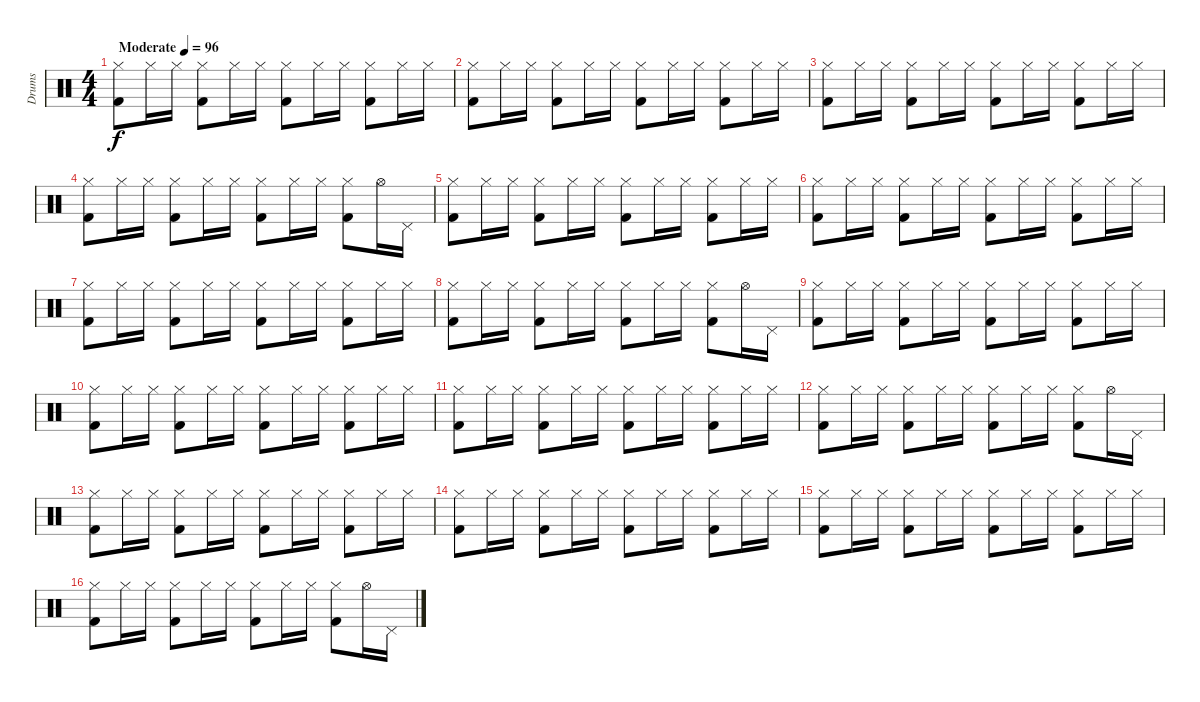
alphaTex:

\track ("Drums" "Drums") {instrument percussion}
\staff {score}
\articulation defaults
\ts (4 4)
\tempo (96 "Moderate")
\clef neutral
\ks c
("Hi-Hat (closed)" "Kick (hit) 2").8{dy f} "Hi-Hat (closed)".16 "Hi-Hat (closed)".16 ("Hi-Hat (closed)" "Kick (hit) 2").8 "Hi-Hat (closed)".16 "Hi-Hat (closed)".16 ("Hi-Hat (closed)" "Kick (hit) 2").8 "Hi-Hat (closed)".16 "Hi-Hat (closed)".16 ("Hi-Hat (closed)" "Kick (hit) 2").8 "Hi-Hat (closed)".16 "Hi-Hat (closed)".16 |
("Hi-Hat (closed)" "Kick (hit) 2").8 "Hi-Hat (closed)".16 "Hi-Hat (closed)".16 ("Hi-Hat (closed)" "Kick (hit) 2").8 "Hi-Hat (closed)".16 "Hi-Hat (closed)".16 ("Hi-Hat (closed)" "Kick (hit) 2").8 "Hi-Hat (closed)".16 "Hi-Hat (closed)".16 ("Hi-Hat (closed)" "Kick (hit) 2").8 "Hi-Hat (closed)".16 "Hi-Hat (closed)".16 |
("Hi-Hat (closed)" "Kick (hit) 2").8 "Hi-Hat (closed)".16 "Hi-Hat (closed)".16 ("Hi-Hat (closed)" "Kick (hit) 2").8 "Hi-Hat (closed)".16 "Hi-Hat (closed)".16 ("Hi-Hat (closed)" "Kick (hit) 2").8 "Hi-Hat (closed)".16 "Hi-Hat (closed)".16 ("Hi-Hat (closed)" "Kick (hit) 2").8 "Hi-Hat (closed)".16 "Hi-Hat (closed)".16 |
("Hi-Hat (closed)" "Kick (hit) 2").8 "Hi-Hat (closed)".16 "Hi-Hat (closed)".16 ("Hi-Hat (closed)" "Kick (hit) 2").8 "Hi-Hat (closed)".16 "Hi-Hat (closed)".16 ("Hi-Hat (closed)" "Kick (hit) 2").8 "Hi-Hat (closed)".16 "Hi-Hat (closed)".16 ("Hi-Hat (closed)" "Kick (hit) 2").8 "Hi-Hat (open)".16 "Pedal Hi-Hat (hit)".16 |
("Hi-Hat (closed)" "Kick (hit) 2").8 "Hi-Hat (closed)".16 "Hi-Hat (closed)".16 ("Hi-Hat (closed)" "Kick (hit) 2").8 "Hi-Hat (closed)".16 "Hi-Hat (closed)".16 ("Hi-Hat (closed)" "Kick (hit) 2").8 "Hi-Hat (closed)".16 "Hi-Hat (closed)".16 ("Hi-Hat (closed)" "Kick (hit) 2").8 "Hi-Hat (closed)".16 "Hi-Hat (closed)".16 |
("Hi-Hat (closed)" "Kick (hit) 2").8 "Hi-Hat (closed)".16 "Hi-Hat (closed)".16 ("Hi-Hat (closed)" "Kick (hit) 2").8 "Hi-Hat (closed)".16 "Hi-Hat (closed)".16 ("Hi-Hat (closed)" "Kick (hit) 2").8 "Hi-Hat (closed)".16 "Hi-Hat (closed)".16 ("Hi-Hat (closed)" "Kick (hit) 2").8 "Hi-Hat (closed)".16 "Hi-Hat (closed)".16 |
("Hi-Hat (closed)" "Kick (hit) 2").8 "Hi-Hat (closed)".16 "Hi-Hat (closed)".16 ("Hi-Hat (closed)" "Kick (hit) 2").8 "Hi-Hat (closed)".16 "Hi-Hat (closed)".16 ("Hi-Hat (closed)" "Kick (hit) 2").8 "Hi-Hat (closed)".16 "Hi-Hat (closed)".16 ("Hi-Hat (closed)" "Kick (hit) 2").8 "Hi-Hat (closed)".16 "Hi-Hat (closed)".16 |
("Hi-Hat (closed)" "Kick (hit) 2").8 "Hi-Hat (closed)".16 "Hi-Hat (closed)".16 ("Hi-Hat (closed)" "Kick (hit) 2").8 "Hi-Hat (closed)".16 "Hi-Hat (closed)".16 ("Hi-Hat (closed)" "Kick (hit) 2").8 "Hi-Hat (closed)".16 "Hi-Hat (closed)".16 ("Hi-Hat (closed)" "Kick (hit) 2").8 "Hi-Hat (open)".16 "Pedal Hi-Hat (hit)".16 |
("Hi-Hat (closed)" "Kick (hit) 2").8 "Hi-Hat (closed)".16 "Hi-Hat (closed)".16 ("Hi-Hat (closed)" "Kick (hit) 2").8 "Hi-Hat (closed)".16 "Hi-Hat (closed)".16 ("Hi-Hat (closed)" "Kick (hit) 2").8 "Hi-Hat (closed)".16 "Hi-Hat (closed)".16 ("Hi-Hat (closed)" "Kick (hit) 2").8 "Hi-Hat (closed)".16 "Hi-Hat (closed)".16 |
("Hi-Hat (closed)" "Kick (hit) 2").8 "Hi-Hat (closed)".16 "Hi-Hat (closed)".16 ("Hi-Hat (closed)" "Kick (hit) 2").8 "Hi-Hat (closed)".16 "Hi-Hat (closed)".16 ("Hi-Hat (closed)" "Kick (hit) 2").8 "Hi-Hat (closed)".16 "Hi-Hat (closed)".16 ("Hi-Hat (closed)" "Kick (hit) 2").8 "Hi-Hat (closed)".16 "Hi-Hat (closed)".16 |
("Hi-Hat (closed)" "Kick (hit) 2").8 "Hi-Hat (closed)".16 "Hi-Hat (closed)".16 ("Hi-Hat (closed)" "Kick (hit) 2").8 "Hi-Hat (closed)".16 "Hi-Hat (closed)".16 ("Hi-Hat (closed)" "Kick (hit) 2").8 "Hi-Hat (closed)".16 "Hi-Hat (closed)".16 ("Hi-Hat (closed)" "Kick (hit) 2").8 "Hi-Hat (closed)".16 "Hi-Hat (closed)".16 |
("Hi-Hat (closed)" "Kick (hit) 2").8 "Hi-Hat (closed)".16 "Hi-Hat (closed)".16 ("Hi-Hat (closed)" "Kick (hit) 2").8 "Hi-Hat (closed)".16 "Hi-Hat (closed)".16 ("Hi-Hat (closed)" "Kick (hit) 2").8 "Hi-Hat (closed)".16 "Hi-Hat (closed)".16 ("Hi-Hat (closed)" "Kick (hit) 2").8 "Hi-Hat (open)".16 "Pedal Hi-Hat (hit)".16 |
("Hi-Hat (closed)" "Kick (hit) 2").8 "Hi-Hat (closed)".16 "Hi-Hat (closed)".16 ("Hi-Hat (closed)" "Kick (hit) 2").8 "Hi-Hat (closed)".16 "Hi-Hat (closed)".16 ("Hi-Hat (closed)" "Kick (hit) 2").8 "Hi-Hat (closed)".16 "Hi-Hat (closed)".16 ("Hi-Hat (closed)" "Kick (hit) 2").8 "Hi-Hat (closed)".16 "Hi-Hat (closed)".16 |
("Hi-Hat (closed)" "Kick (hit) 2").8 "Hi-Hat (closed)".16 "Hi-Hat (closed)".16 ("Hi-Hat (closed)" "Kick (hit) 2").8 "Hi-Hat (closed)".16 "Hi-Hat (closed)".16 ("Hi-Hat (closed)" "Kick (hit) 2").8 "Hi-Hat (closed)".16 "Hi-Hat (closed)".16 ("Hi-Hat (closed)" "Kick (hit) 2").8 "Hi-Hat (closed)".16 "Hi-Hat (closed)".16 |
("Hi-Hat (closed)" "Kick (hit) 2").8 "Hi-Hat (closed)".16 "Hi-Hat (closed)".16 ("Hi-Hat (closed)" "Kick (hit) 2").8 "Hi-Hat (closed)".16 "Hi-Hat (closed)".16 ("Hi-Hat (closed)" "Kick (hit) 2").8 "Hi-Hat (closed)".16 "Hi-Hat (closed)".16 ("Hi-Hat (closed)" "Kick (hit) 2").8 "Hi-Hat (closed)".16 "Hi-Hat (closed)".16 |
("Hi-Hat (closed)" "Kick (hit) 2").8 "Hi-Hat (closed)".16 "Hi-Hat (closed)".16 ("Hi-Hat (closed)" "Kick (hit) 2").8 "Hi-Hat (closed)".16 "Hi-Hat (closed)".16 ("Hi-Hat (closed)" "Kick (hit) 2").8 "Hi-Hat (closed)".16 "Hi-Hat (closed)".16 ("Hi-Hat (closed)" "Kick (hit) 2").8 "Hi-Hat (open)".16 "Pedal Hi-Hat (hit)".16
